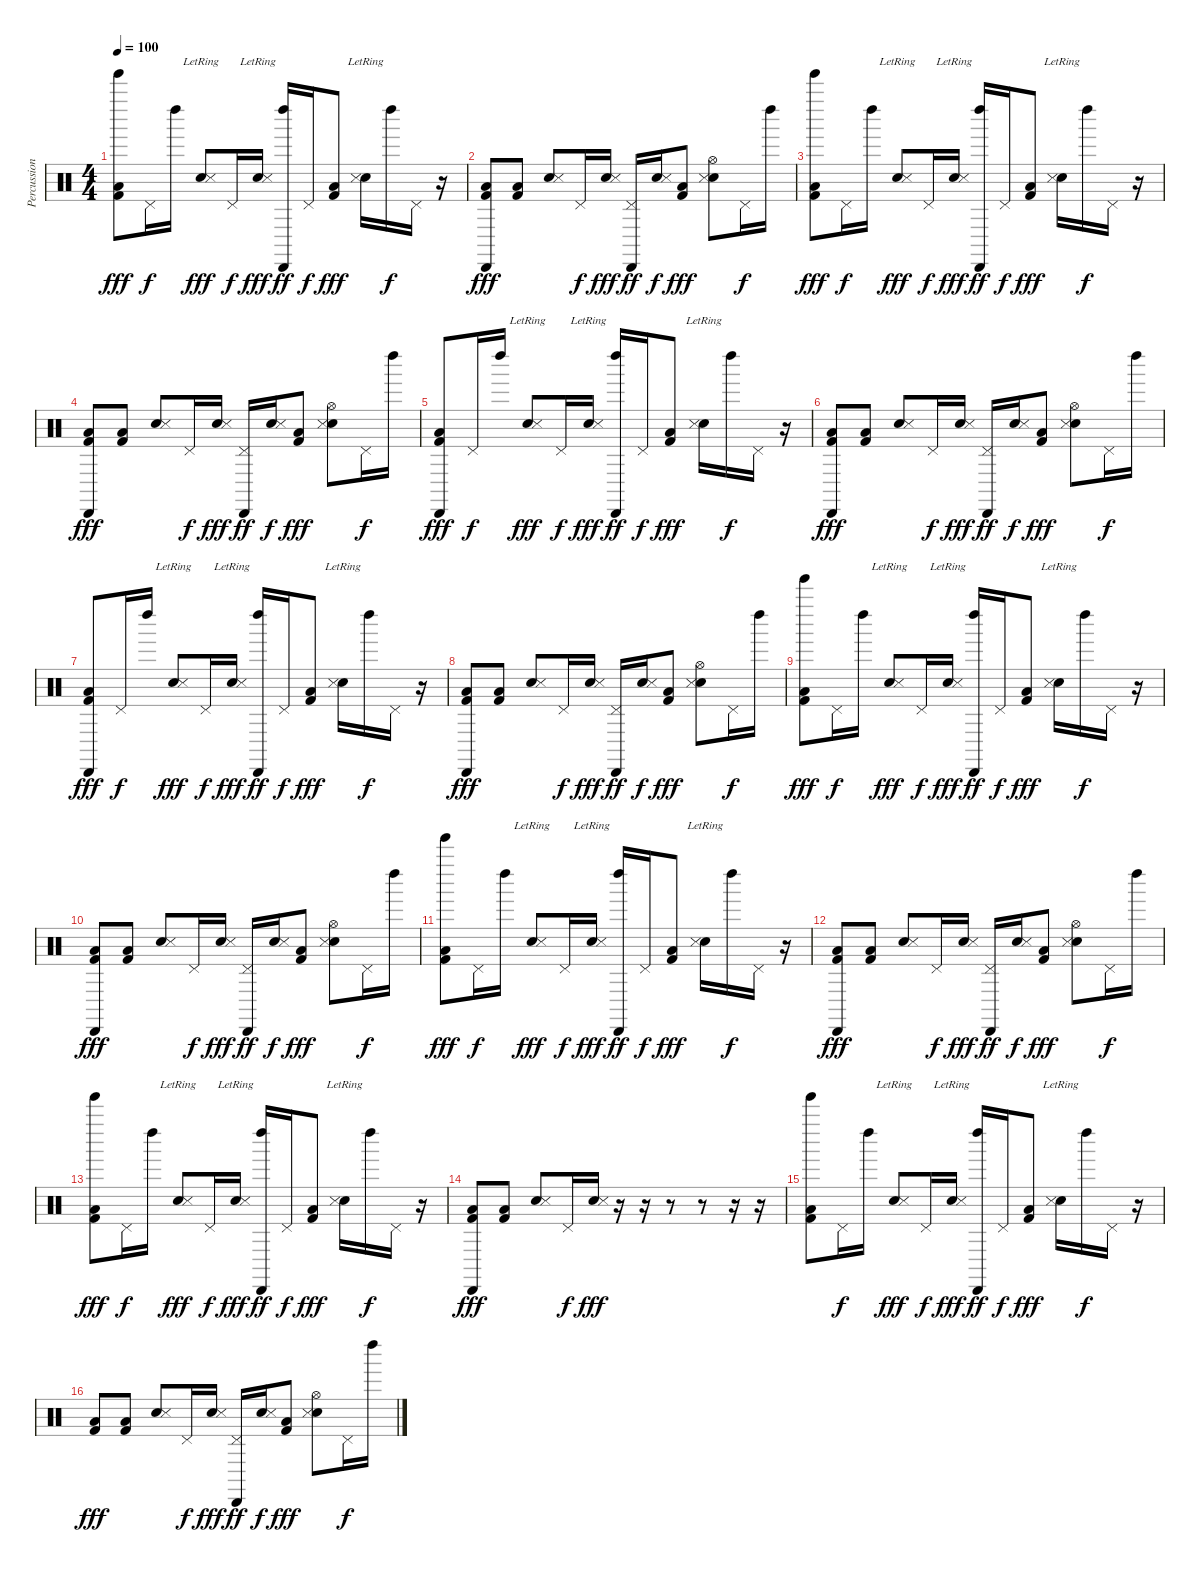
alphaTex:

\track ("Percussion" "Percussion") {instrument percussion}
\staff {score}
\articulation defaults
\ts (4 4)
\tempo 100
\clef neutral
\ks c
("Tinkle Bell (hit)" "Low Floor Tom (hit)" "Kick (hit) 2").8{dy fff} "Pedal Hi-Hat (hit)".16{dy f} "Left Maraca (hit)".16 ("Electric Snare (hit)" "Snare (side stick) 3"{lr}).8{dy fff} "Pedal Hi-Hat (hit)".16{dy f} ("Electric Snare (hit)" "Snare (side stick) 3"{lr}).16{dy fff} ("Cabasa (hit)" "Left Maraca (hit)").16{dy ff} "Pedal Hi-Hat (hit)".16{dy f} ("Low Floor Tom (hit)" "Kick (hit) 2").8{dy fff} ("Electric Snare (hit)"{lr} "Snare (side stick) 3"{lr}).16 "Left Maraca (hit)".16{dy f} "Pedal Hi-Hat (hit)".16 r.16 |
("Cabasa (hit)" "Low Floor Tom (hit)" "Kick (hit) 2").8{dy fff} ("Low Floor Tom (hit)" "Kick (hit) 2").8 ("Electric Snare (hit)" "Snare (side stick) 3").8 "Pedal Hi-Hat (hit)".16{dy f} ("Electric Snare (hit)" "Snare (side stick) 3").16{dy fff} ("Cabasa (hit)" "Pedal Hi-Hat (hit)").16{dy ff} ("Electric Snare (hit)" "Snare (side stick) 3").16{dy f} ("Low Floor Tom (hit)" "Kick (hit) 2").8{dy fff} ("Hi-Hat (open)" "Electric Snare (hit)" "Snare (side stick) 3").8 "Pedal Hi-Hat (hit)".16{dy f} "Left Maraca (hit)".16 |
("Tinkle Bell (hit)" "Low Floor Tom (hit)" "Kick (hit) 2").8{dy fff} "Pedal Hi-Hat (hit)".16{dy f} "Left Maraca (hit)".16 ("Electric Snare (hit)" "Snare (side stick) 3"{lr}).8{dy fff} "Pedal Hi-Hat (hit)".16{dy f} ("Electric Snare (hit)" "Snare (side stick) 3"{lr}).16{dy fff} ("Cabasa (hit)" "Left Maraca (hit)").16{dy ff} "Pedal Hi-Hat (hit)".16{dy f} ("Low Floor Tom (hit)" "Kick (hit) 2").8{dy fff} ("Electric Snare (hit)"{lr} "Snare (side stick) 3"{lr}).16 "Left Maraca (hit)".16{dy f} "Pedal Hi-Hat (hit)".16 r.16 |
("Cabasa (hit)" "Low Floor Tom (hit)" "Kick (hit) 2").8{dy fff} ("Low Floor Tom (hit)" "Kick (hit) 2").8 ("Electric Snare (hit)" "Snare (side stick) 3").8 "Pedal Hi-Hat (hit)".16{dy f} ("Electric Snare (hit)" "Snare (side stick) 3").16{dy fff} ("Cabasa (hit)" "Pedal Hi-Hat (hit)").16{dy ff} ("Electric Snare (hit)" "Snare (side stick) 3").16{dy f} ("Low Floor Tom (hit)" "Kick (hit) 2").8{dy fff} ("Hi-Hat (open)" "Electric Snare (hit)" "Snare (side stick) 3").8 "Pedal Hi-Hat (hit)".16{dy f} "Left Maraca (hit)".16 |
("Cabasa (hit)" "Low Floor Tom (hit)" "Kick (hit) 2").8{dy fff} "Pedal Hi-Hat (hit)".16{dy f} "Left Maraca (hit)".16 ("Electric Snare (hit)" "Snare (side stick) 3"{lr}).8{dy fff} "Pedal Hi-Hat (hit)".16{dy f} ("Electric Snare (hit)" "Snare (side stick) 3"{lr}).16{dy fff} ("Cabasa (hit)" "Left Maraca (hit)").16{dy ff} "Pedal Hi-Hat (hit)".16{dy f} ("Low Floor Tom (hit)" "Kick (hit) 2").8{dy fff} ("Electric Snare (hit)"{lr} "Snare (side stick) 3"{lr}).16 "Left Maraca (hit)".16{dy f} "Pedal Hi-Hat (hit)".16 r.16 |
("Cabasa (hit)" "Low Floor Tom (hit)" "Kick (hit) 2").8{dy fff} ("Low Floor Tom (hit)" "Kick (hit) 2").8 ("Electric Snare (hit)" "Snare (side stick) 3").8 "Pedal Hi-Hat (hit)".16{dy f} ("Electric Snare (hit)" "Snare (side stick) 3").16{dy fff} ("Cabasa (hit)" "Pedal Hi-Hat (hit)").16{dy ff} ("Electric Snare (hit)" "Snare (side stick) 3").16{dy f} ("Low Floor Tom (hit)" "Kick (hit) 2").8{dy fff} ("Hi-Hat (open)" "Electric Snare (hit)" "Snare (side stick) 3").8 "Pedal Hi-Hat (hit)".16{dy f} "Left Maraca (hit)".16 |
("Cabasa (hit)" "Low Floor Tom (hit)" "Kick (hit) 2").8{dy fff} "Pedal Hi-Hat (hit)".16{dy f} "Left Maraca (hit)".16 ("Electric Snare (hit)" "Snare (side stick) 3"{lr}).8{dy fff} "Pedal Hi-Hat (hit)".16{dy f} ("Electric Snare (hit)" "Snare (side stick) 3"{lr}).16{dy fff} ("Cabasa (hit)" "Left Maraca (hit)").16{dy ff} "Pedal Hi-Hat (hit)".16{dy f} ("Low Floor Tom (hit)" "Kick (hit) 2").8{dy fff} ("Electric Snare (hit)"{lr} "Snare (side stick) 3"{lr}).16 "Left Maraca (hit)".16{dy f} "Pedal Hi-Hat (hit)".16 r.16 |
("Cabasa (hit)" "Low Floor Tom (hit)" "Kick (hit) 2").8{dy fff} ("Low Floor Tom (hit)" "Kick (hit) 2").8 ("Electric Snare (hit)" "Snare (side stick) 3").8 "Pedal Hi-Hat (hit)".16{dy f} ("Electric Snare (hit)" "Snare (side stick) 3").16{dy fff} ("Cabasa (hit)" "Pedal Hi-Hat (hit)").16{dy ff} ("Electric Snare (hit)" "Snare (side stick) 3").16{dy f} ("Low Floor Tom (hit)" "Kick (hit) 2").8{dy fff} ("Hi-Hat (open)" "Electric Snare (hit)" "Snare (side stick) 3").8 "Pedal Hi-Hat (hit)".16{dy f} "Left Maraca (hit)".16 |
("Tinkle Bell (hit)" "Low Floor Tom (hit)" "Kick (hit) 2").8{dy fff} "Pedal Hi-Hat (hit)".16{dy f} "Left Maraca (hit)".16 ("Electric Snare (hit)" "Snare (side stick) 3"{lr}).8{dy fff} "Pedal Hi-Hat (hit)".16{dy f} ("Electric Snare (hit)" "Snare (side stick) 3"{lr}).16{dy fff} ("Cabasa (hit)" "Left Maraca (hit)").16{dy ff} "Pedal Hi-Hat (hit)".16{dy f} ("Low Floor Tom (hit)" "Kick (hit) 2").8{dy fff} ("Electric Snare (hit)"{lr} "Snare (side stick) 3"{lr}).16 "Left Maraca (hit)".16{dy f} "Pedal Hi-Hat (hit)".16 r.16 |
("Cabasa (hit)" "Low Floor Tom (hit)" "Kick (hit) 2").8{dy fff} ("Low Floor Tom (hit)" "Kick (hit) 2").8 ("Electric Snare (hit)" "Snare (side stick) 3").8 "Pedal Hi-Hat (hit)".16{dy f} ("Electric Snare (hit)" "Snare (side stick) 3").16{dy fff} ("Cabasa (hit)" "Pedal Hi-Hat (hit)").16{dy ff} ("Electric Snare (hit)" "Snare (side stick) 3").16{dy f} ("Low Floor Tom (hit)" "Kick (hit) 2").8{dy fff} ("Hi-Hat (open)" "Electric Snare (hit)" "Snare (side stick) 3").8 "Pedal Hi-Hat (hit)".16{dy f} "Left Maraca (hit)".16 |
("Tinkle Bell (hit)" "Low Floor Tom (hit)" "Kick (hit) 2").8{dy fff} "Pedal Hi-Hat (hit)".16{dy f} "Left Maraca (hit)".16 ("Electric Snare (hit)" "Snare (side stick) 3"{lr}).8{dy fff} "Pedal Hi-Hat (hit)".16{dy f} ("Electric Snare (hit)" "Snare (side stick) 3"{lr}).16{dy fff} ("Cabasa (hit)" "Left Maraca (hit)").16{dy ff} "Pedal Hi-Hat (hit)".16{dy f} ("Low Floor Tom (hit)" "Kick (hit) 2").8{dy fff} ("Electric Snare (hit)"{lr} "Snare (side stick) 3"{lr}).16 "Left Maraca (hit)".16{dy f} "Pedal Hi-Hat (hit)".16 r.16 |
("Cabasa (hit)" "Low Floor Tom (hit)" "Kick (hit) 2").8{dy fff} ("Low Floor Tom (hit)" "Kick (hit) 2").8 ("Electric Snare (hit)" "Snare (side stick) 3").8 "Pedal Hi-Hat (hit)".16{dy f} ("Electric Snare (hit)" "Snare (side stick) 3").16{dy fff} ("Cabasa (hit)" "Pedal Hi-Hat (hit)").16{dy ff} ("Electric Snare (hit)" "Snare (side stick) 3").16{dy f} ("Low Floor Tom (hit)" "Kick (hit) 2").8{dy fff} ("Hi-Hat (open)" "Electric Snare (hit)" "Snare (side stick) 3").8 "Pedal Hi-Hat (hit)".16{dy f} "Left Maraca (hit)".16 |
("Tinkle Bell (hit)" "Low Floor Tom (hit)" "Kick (hit) 2").8{dy fff} "Pedal Hi-Hat (hit)".16{dy f} "Left Maraca (hit)".16 ("Electric Snare (hit)" "Snare (side stick) 3"{lr}).8{dy fff} "Pedal Hi-Hat (hit)".16{dy f} ("Electric Snare (hit)" "Snare (side stick) 3"{lr}).16{dy fff} ("Cabasa (hit)" "Left Maraca (hit)").16{dy ff} "Pedal Hi-Hat (hit)".16{dy f} ("Low Floor Tom (hit)" "Kick (hit) 2").8{dy fff} ("Electric Snare (hit)"{lr} "Snare (side stick) 3"{lr}).16 "Left Maraca (hit)".16{dy f} "Pedal Hi-Hat (hit)".16 r.16 |
("Cabasa (hit)" "Low Floor Tom (hit)" "Kick (hit) 2").8{dy fff} ("Low Floor Tom (hit)" "Kick (hit) 2").8 ("Electric Snare (hit)" "Snare (side stick) 3").8 "Pedal Hi-Hat (hit)".16{dy f} ("Electric Snare (hit)" "Snare (side stick) 3").16{dy fff} r.16 r.16 r.8 r.8 r.16 r.16 |
("Tinkle Bell (hit)" "Low Floor Tom (hit)" "Kick (hit) 2").8 "Pedal Hi-Hat (hit)".16{dy f} "Left Maraca (hit)".16 ("Electric Snare (hit)" "Snare (side stick) 3"{lr}).8{dy fff} "Pedal Hi-Hat (hit)".16{dy f} ("Electric Snare (hit)" "Snare (side stick) 3"{lr}).16{dy fff} ("Cabasa (hit)" "Left Maraca (hit)").16{dy ff} "Pedal Hi-Hat (hit)".16{dy f} ("Low Floor Tom (hit)" "Kick (hit) 2").8{dy fff} ("Electric Snare (hit)"{lr} "Snare (side stick) 3"{lr}).16 "Left Maraca (hit)".16{dy f} "Pedal Hi-Hat (hit)".16 r.16 |
("Low Floor Tom (hit)" "Kick (hit) 2").8{dy fff} ("Low Floor Tom (hit)" "Kick (hit) 2").8 ("Electric Snare (hit)" "Snare (side stick) 3").8 "Pedal Hi-Hat (hit)".16{dy f} ("Electric Snare (hit)" "Snare (side stick) 3").16{dy fff} ("Cabasa (hit)" "Pedal Hi-Hat (hit)").16{dy ff} ("Electric Snare (hit)" "Snare (side stick) 3").16{dy f} ("Low Floor Tom (hit)" "Kick (hit) 2").8{dy fff} ("Hi-Hat (open)" "Electric Snare (hit)" "Snare (side stick) 3").8 "Pedal Hi-Hat (hit)".16{dy f} "Left Maraca (hit)".16
